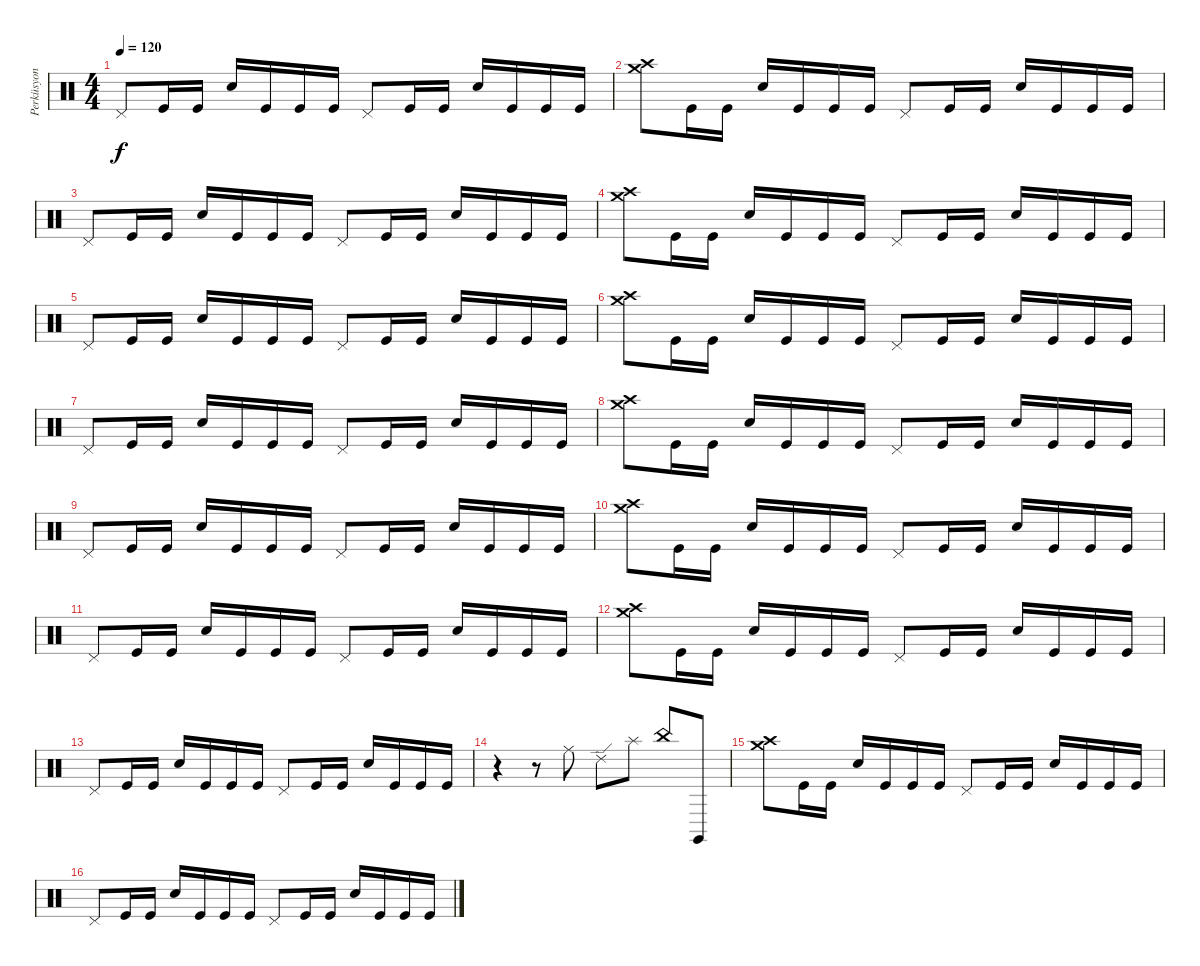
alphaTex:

\track ("Perküsyon" "Perküsyon") {instrument percussion}
\staff {score}
\articulation defaults
\ts (4 4)
\tempo 120
\clef neutral
\ks c "Pedal Hi-Hat (hit)".8{dy f} "Kick (hit)".16 "Kick (hit)".16 "Snare (hit) 2".16 "Kick (hit)".16 "Kick (hit)".16 "Kick (hit)".16 "Pedal Hi-Hat (hit)".8 "Kick (hit)".16 "Kick (hit)".16 "Snare (hit) 2".16 "Kick (hit)".16 "Kick (hit)".16 "Kick (hit)".16
|
("Crash high (hit)" "Crash medium (hit)").8 "Kick (hit)".16 "Kick (hit)".16 "Snare (hit) 2".16 "Kick (hit)".16 "Kick (hit)".16 "Kick (hit)".16 "Pedal Hi-Hat (hit)".8 "Kick (hit)".16 "Kick (hit)".16 "Snare (hit) 2".16 "Kick (hit)".16 "Kick (hit)".16 "Kick (hit)".16 |
"Pedal Hi-Hat (hit)".8 "Kick (hit)".16 "Kick (hit)".16 "Snare (hit) 2".16 "Kick (hit)".16 "Kick (hit)".16 "Kick (hit)".16 "Pedal Hi-Hat (hit)".8 "Kick (hit)".16 "Kick (hit)".16 "Snare (hit) 2".16 "Kick (hit)".16 "Kick (hit)".16 "Kick (hit)".16 |
("Crash high (hit)" "Crash medium (hit)").8 "Kick (hit)".16 "Kick (hit)".16 "Snare (hit) 2".16 "Kick (hit)".16 "Kick (hit)".16 "Kick (hit)".16 "Pedal Hi-Hat (hit)".8 "Kick (hit)".16 "Kick (hit)".16 "Snare (hit) 2".16 "Kick (hit)".16 "Kick (hit)".16 "Kick (hit)".16 |
"Pedal Hi-Hat (hit)".8 "Kick (hit)".16 "Kick (hit)".16 "Snare (hit) 2".16 "Kick (hit)".16 "Kick (hit)".16 "Kick (hit)".16 "Pedal Hi-Hat (hit)".8 "Kick (hit)".16 "Kick (hit)".16 "Snare (hit) 2".16 "Kick (hit)".16 "Kick (hit)".16 "Kick (hit)".16 |
("Crash high (hit)" "Crash medium (hit)").8 "Kick (hit)".16 "Kick (hit)".16 "Snare (hit) 2".16 "Kick (hit)".16 "Kick (hit)".16 "Kick (hit)".16 "Pedal Hi-Hat (hit)".8 "Kick (hit)".16 "Kick (hit)".16 "Snare (hit) 2".16 "Kick (hit)".16 "Kick (hit)".16 "Kick (hit)".16 |
"Pedal Hi-Hat (hit)".8 "Kick (hit)".16 "Kick (hit)".16 "Snare (hit) 2".16 "Kick (hit)".16 "Kick (hit)".16 "Kick (hit)".16 "Pedal Hi-Hat (hit)".8 "Kick (hit)".16 "Kick (hit)".16 "Snare (hit) 2".16 "Kick (hit)".16 "Kick (hit)".16 "Kick (hit)".16 |
("Crash high (hit)" "Crash medium (hit)").8 "Kick (hit)".16 "Kick (hit)".16 "Snare (hit) 2".16 "Kick (hit)".16 "Kick (hit)".16 "Kick (hit)".16 "Pedal Hi-Hat (hit)".8 "Kick (hit)".16 "Kick (hit)".16 "Snare (hit) 2".16 "Kick (hit)".16 "Kick (hit)".16 "Kick (hit)".16 |
"Pedal Hi-Hat (hit)".8 "Kick (hit)".16 "Kick (hit)".16 "Snare (hit) 2".16 "Kick (hit)".16 "Kick (hit)".16 "Kick (hit)".16 "Pedal Hi-Hat (hit)".8 "Kick (hit)".16 "Kick (hit)".16 "Snare (hit) 2".16 "Kick (hit)".16 "Kick (hit)".16 "Kick (hit)".16 |
("Crash high (hit)" "Crash medium (hit)").8 "Kick (hit)".16 "Kick (hit)".16 "Snare (hit) 2".16 "Kick (hit)".16 "Kick (hit)".16 "Kick (hit)".16 "Pedal Hi-Hat (hit)".8 "Kick (hit)".16 "Kick (hit)".16 "Snare (hit) 2".16 "Kick (hit)".16 "Kick (hit)".16 "Kick (hit)".16 |
"Pedal Hi-Hat (hit)".8 "Kick (hit)".16 "Kick (hit)".16 "Snare (hit) 2".16 "Kick (hit)".16 "Kick (hit)".16 "Kick (hit)".16 "Pedal Hi-Hat (hit)".8 "Kick (hit)".16 "Kick (hit)".16 "Snare (hit) 2".16 "Kick (hit)".16 "Kick (hit)".16 "Kick (hit)".16 |
("Crash high (hit)" "Crash medium (hit)").8 "Kick (hit)".16 "Kick (hit)".16 "Snare (hit) 2".16 "Kick (hit)".16 "Kick (hit)".16 "Kick (hit)".16 "Pedal Hi-Hat (hit)".8 "Kick (hit)".16 "Kick (hit)".16 "Snare (hit) 2".16 "Kick (hit)".16 "Kick (hit)".16 "Kick (hit)".16 |
"Pedal Hi-Hat (hit)".8 "Kick (hit)".16 "Kick (hit)".16 "Snare (hit) 2".16 "Kick (hit)".16 "Kick (hit)".16 "Kick (hit)".16 "Pedal Hi-Hat (hit)".8 "Kick (hit)".16 "Kick (hit)".16 "Snare (hit) 2".16 "Kick (hit)".16 "Kick (hit)".16 "Kick (hit)".16 |
r.4 r.8 "Ride (middle)".8 "Ride (edge) 2".8 "Splash (hit)".8 "China (hit)".8 "Claves (hit)".8 |
("Crash high (hit)" "Crash medium (hit)").8 "Kick (hit)".16 "Kick (hit)".16 "Snare (hit) 2".16 "Kick (hit)".16 "Kick (hit)".16 "Kick (hit)".16 "Pedal Hi-Hat (hit)".8 "Kick (hit)".16 "Kick (hit)".16 "Snare (hit) 2".16 "Kick (hit)".16 "Kick (hit)".16 "Kick (hit)".16 |
"Pedal Hi-Hat (hit)".8 "Kick (hit)".16 "Kick (hit)".16 "Snare (hit) 2".16 "Kick (hit)".16 "Kick (hit)".16 "Kick (hit)".16 "Pedal Hi-Hat (hit)".8 "Kick (hit)".16 "Kick (hit)".16 "Snare (hit) 2".16 "Kick (hit)".16 "Kick (hit)".16 "Kick (hit)".16
